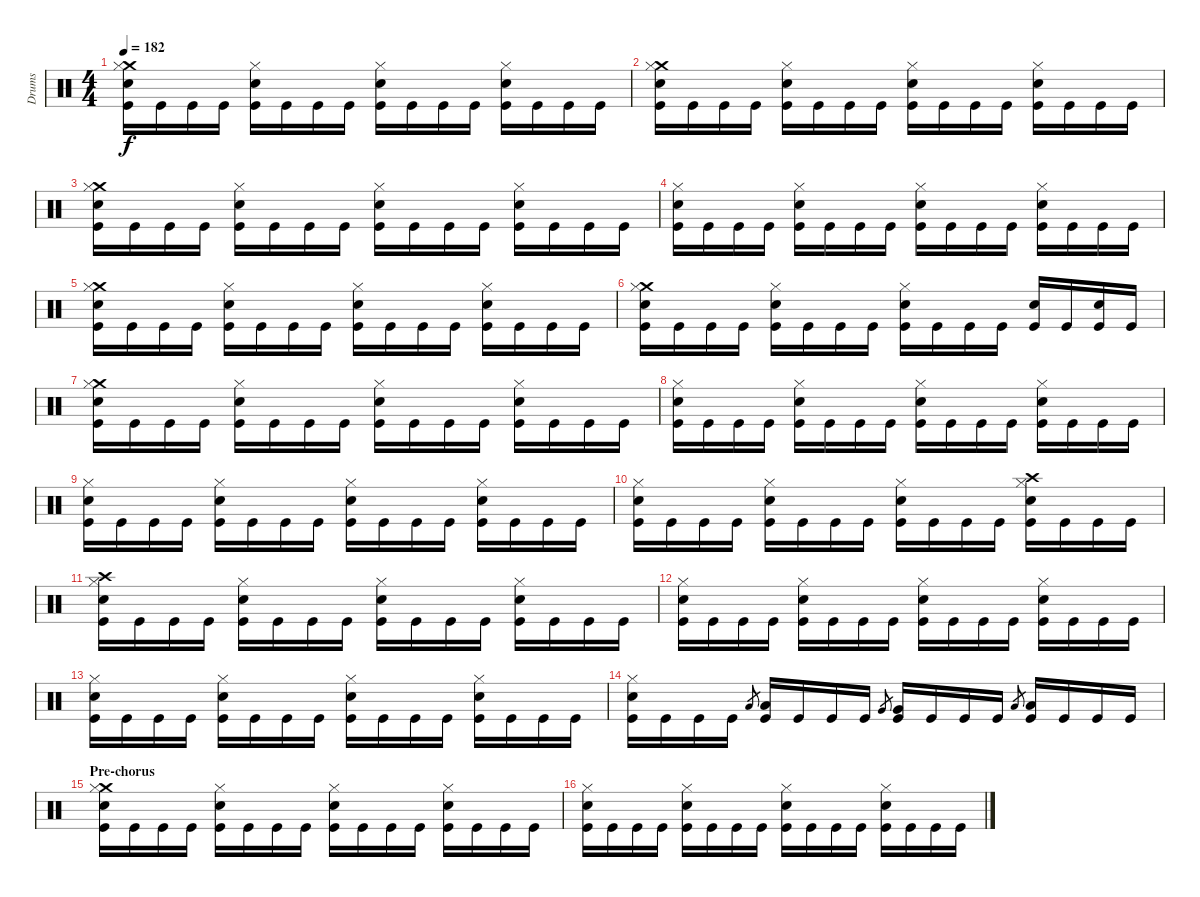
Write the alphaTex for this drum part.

\track ("Drums" "Drums") {instrument percussion}
\staff {score}
\articulation defaults
\ts (4 4)
\tempo 182
\clef neutral
\ks c
("Crash medium (hit)" "Hi-Hat (closed)" "Snare (hit) 2" "Kick (hit)").16{dy f} "Kick (hit)".16 "Kick (hit)".16 "Kick (hit)".16 ("Hi-Hat (closed)" "Snare (hit) 2" "Kick (hit)").16 "Kick (hit)".16 "Kick (hit)".16 "Kick (hit)".16 ("Hi-Hat (closed)" "Snare (hit) 2" "Kick (hit)").16 "Kick (hit)".16 "Kick (hit)".16 "Kick (hit)".16 ("Hi-Hat (closed)" "Snare (hit) 2" "Kick (hit)").16 "Kick (hit)".16 "Kick (hit)".16 "Kick (hit)".16 |
("Crash medium (hit)" "Hi-Hat (closed)" "Snare (hit) 2" "Kick (hit)").16 "Kick (hit)".16 "Kick (hit)".16 "Kick (hit)".16 ("Hi-Hat (closed)" "Snare (hit) 2" "Kick (hit)").16 "Kick (hit)".16 "Kick (hit)".16 "Kick (hit)".16 ("Hi-Hat (closed)" "Snare (hit) 2" "Kick (hit)").16 "Kick (hit)".16 "Kick (hit)".16 "Kick (hit)".16 ("Hi-Hat (closed)" "Snare (hit) 2" "Kick (hit)").16 "Kick (hit)".16 "Kick (hit)".16 "Kick (hit)".16 |
("Crash medium (hit)" "Hi-Hat (closed)" "Snare (hit) 2" "Kick (hit)").16 "Kick (hit)".16 "Kick (hit)".16 "Kick (hit)".16 ("Hi-Hat (closed)" "Snare (hit) 2" "Kick (hit)").16 "Kick (hit)".16 "Kick (hit)".16 "Kick (hit)".16 ("Hi-Hat (closed)" "Snare (hit) 2" "Kick (hit)").16 "Kick (hit)".16 "Kick (hit)".16 "Kick (hit)".16 ("Hi-Hat (closed)" "Snare (hit) 2" "Kick (hit)").16 "Kick (hit)".16 "Kick (hit)".16 "Kick (hit)".16 |
("Hi-Hat (closed)" "Snare (hit) 2" "Kick (hit)").16 "Kick (hit)".16 "Kick (hit)".16 "Kick (hit)".16 ("Hi-Hat (closed)" "Snare (hit) 2" "Kick (hit)").16 "Kick (hit)".16 "Kick (hit)".16 "Kick (hit)".16 ("Hi-Hat (closed)" "Snare (hit) 2" "Kick (hit)").16 "Kick (hit)".16 "Kick (hit)".16 "Kick (hit)".16 ("Hi-Hat (closed)" "Snare (hit) 2" "Kick (hit)").16 "Kick (hit)".16 "Kick (hit)".16 "Kick (hit)".16 |
("Crash medium (hit)" "Hi-Hat (closed)" "Snare (hit) 2" "Kick (hit)").16 "Kick (hit)".16 "Kick (hit)".16 "Kick (hit)".16 ("Hi-Hat (closed)" "Snare (hit) 2" "Kick (hit)").16 "Kick (hit)".16 "Kick (hit)".16 "Kick (hit)".16 ("Hi-Hat (closed)" "Snare (hit) 2" "Kick (hit)").16 "Kick (hit)".16 "Kick (hit)".16 "Kick (hit)".16 ("Hi-Hat (closed)" "Snare (hit) 2" "Kick (hit)").16 "Kick (hit)".16 "Kick (hit)".16 "Kick (hit)".16 |
("Crash medium (hit)" "Hi-Hat (closed)" "Snare (hit) 2" "Kick (hit)").16 "Kick (hit)".16 "Kick (hit)".16 "Kick (hit)".16 ("Hi-Hat (closed)" "Snare (hit) 2" "Kick (hit)").16 "Kick (hit)".16 "Kick (hit)".16 "Kick (hit)".16 ("Hi-Hat (closed)" "Snare (hit) 2" "Kick (hit)").16 "Kick (hit)".16 "Kick (hit)".16 "Kick (hit)".16 ("Snare (hit) 2" "Kick (hit)").16 "Kick (hit)".16 ("Snare (hit) 2" "Kick (hit)").16 "Kick (hit)".16 |
("Crash medium (hit)" "Hi-Hat (closed)" "Snare (hit) 2" "Kick (hit)").16 "Kick (hit)".16 "Kick (hit)".16 "Kick (hit)".16 ("Hi-Hat (closed)" "Snare (hit) 2" "Kick (hit)").16 "Kick (hit)".16 "Kick (hit)".16 "Kick (hit)".16 ("Hi-Hat (closed)" "Snare (hit) 2" "Kick (hit)").16 "Kick (hit)".16 "Kick (hit)".16 "Kick (hit)".16 ("Hi-Hat (closed)" "Snare (hit) 2" "Kick (hit)").16 "Kick (hit)".16 "Kick (hit)".16 "Kick (hit)".16 |
("Hi-Hat (closed)" "Snare (hit) 2" "Kick (hit)").16 "Kick (hit)".16 "Kick (hit)".16 "Kick (hit)".16 ("Hi-Hat (closed)" "Snare (hit) 2" "Kick (hit)").16 "Kick (hit)".16 "Kick (hit)".16 "Kick (hit)".16 ("Hi-Hat (closed)" "Snare (hit) 2" "Kick (hit)").16 "Kick (hit)".16 "Kick (hit)".16 "Kick (hit)".16 ("Hi-Hat (closed)" "Snare (hit) 2" "Kick (hit)").16 "Kick (hit)".16 "Kick (hit)".16 "Kick (hit)".16 |
("Hi-Hat (closed)" "Snare (hit) 2" "Kick (hit)").16 "Kick (hit)".16 "Kick (hit)".16 "Kick (hit)".16 ("Hi-Hat (closed)" "Snare (hit) 2" "Kick (hit)").16 "Kick (hit)".16 "Kick (hit)".16 "Kick (hit)".16 ("Hi-Hat (closed)" "Snare (hit) 2" "Kick (hit)").16 "Kick (hit)".16 "Kick (hit)".16 "Kick (hit)".16 ("Hi-Hat (closed)" "Snare (hit) 2" "Kick (hit)").16 "Kick (hit)".16 "Kick (hit)".16 "Kick (hit)".16 |
("Hi-Hat (closed)" "Snare (hit) 2" "Kick (hit)").16 "Kick (hit)".16 "Kick (hit)".16 "Kick (hit)".16 ("Hi-Hat (closed)" "Snare (hit) 2" "Kick (hit)").16 "Kick (hit)".16 "Kick (hit)".16 "Kick (hit)".16 ("Hi-Hat (closed)" "Snare (hit) 2" "Kick (hit)").16 "Kick (hit)".16 "Kick (hit)".16 "Kick (hit)".16 ("Crash high (hit)" "Hi-Hat (closed)" "Snare (hit) 2" "Kick (hit)").16 "Kick (hit)".16 "Kick (hit)".16 "Kick (hit)".16 |
("Crash high (hit)" "Hi-Hat (closed)" "Snare (hit) 2" "Kick (hit)").16 "Kick (hit)".16 "Kick (hit)".16 "Kick (hit)".16 ("Hi-Hat (closed)" "Snare (hit) 2" "Kick (hit)").16 "Kick (hit)".16 "Kick (hit)".16 "Kick (hit)".16 ("Hi-Hat (closed)" "Snare (hit) 2" "Kick (hit)").16 "Kick (hit)".16 "Kick (hit)".16 "Kick (hit)".16 ("Hi-Hat (closed)" "Snare (hit) 2" "Kick (hit)").16 "Kick (hit)".16 "Kick (hit)".16 "Kick (hit)".16 |
("Hi-Hat (closed)" "Snare (hit) 2" "Kick (hit)").16 "Kick (hit)".16 "Kick (hit)".16 "Kick (hit)".16 ("Hi-Hat (closed)" "Snare (hit) 2" "Kick (hit)").16 "Kick (hit)".16 "Kick (hit)".16 "Kick (hit)".16 ("Hi-Hat (closed)" "Snare (hit) 2" "Kick (hit)").16 "Kick (hit)".16 "Kick (hit)".16 "Kick (hit)".16 ("Hi-Hat (closed)" "Snare (hit) 2" "Kick (hit)").16 "Kick (hit)".16 "Kick (hit)".16 "Kick (hit)".16 |
("Hi-Hat (closed)" "Snare (hit) 2" "Kick (hit)").16 "Kick (hit)".16 "Kick (hit)".16 "Kick (hit)".16 ("Hi-Hat (closed)" "Snare (hit) 2" "Kick (hit)").16 "Kick (hit)".16 "Kick (hit)".16 "Kick (hit)".16 ("Hi-Hat (closed)" "Snare (hit) 2" "Kick (hit)").16 "Kick (hit)".16 "Kick (hit)".16 "Kick (hit)".16 ("Hi-Hat (closed)" "Snare (hit) 2" "Kick (hit)").16 "Kick (hit)".16 "Kick (hit)".16 "Kick (hit)".16 |
("Hi-Hat (closed)" "Snare (hit) 2" "Kick (hit)").16 "Kick (hit)".16 "Kick (hit)".16 "Kick (hit)".16 "Low Tom (hit)".8{gr} ("Low Tom (hit)" "Kick (hit)").16 "Kick (hit)".16 "Kick (hit)".16 "Kick (hit)".16 "Very Low Tom (hit)".8{gr} ("Very Low Tom (hit)" "Kick (hit)").16 "Kick (hit)".16 "Kick (hit)".16 "Kick (hit)".16 "Low Floor Tom (hit)".8{gr} ("Low Floor Tom (hit)" "Kick (hit)").16 "Kick (hit)".16 "Kick (hit)".16 "Kick (hit)".16 |
\section ("" "Pre-chorus")
("Crash medium (hit)" "Hi-Hat (closed)" "Snare (hit) 2" "Kick (hit)").16 "Kick (hit)".16 "Kick (hit)".16 "Kick (hit)".16 ("Hi-Hat (closed)" "Snare (hit) 2" "Kick (hit)").16 "Kick (hit)".16 "Kick (hit)".16 "Kick (hit)".16 ("Hi-Hat (closed)" "Snare (hit) 2" "Kick (hit)").16 "Kick (hit)".16 "Kick (hit)".16 "Kick (hit)".16 ("Hi-Hat (closed)" "Snare (hit) 2" "Kick (hit)").16 "Kick (hit)".16 "Kick (hit)".16 "Kick (hit)".16 |
("Hi-Hat (closed)" "Snare (hit) 2" "Kick (hit)").16 "Kick (hit)".16 "Kick (hit)".16 "Kick (hit)".16 ("Hi-Hat (closed)" "Snare (hit) 2" "Kick (hit)").16 "Kick (hit)".16 "Kick (hit)".16 "Kick (hit)".16 ("Hi-Hat (closed)" "Snare (hit) 2" "Kick (hit)").16 "Kick (hit)".16 "Kick (hit)".16 "Kick (hit)".16 ("Hi-Hat (closed)" "Snare (hit) 2" "Kick (hit)").16 "Kick (hit)".16 "Kick (hit)".16 "Kick (hit)".16
